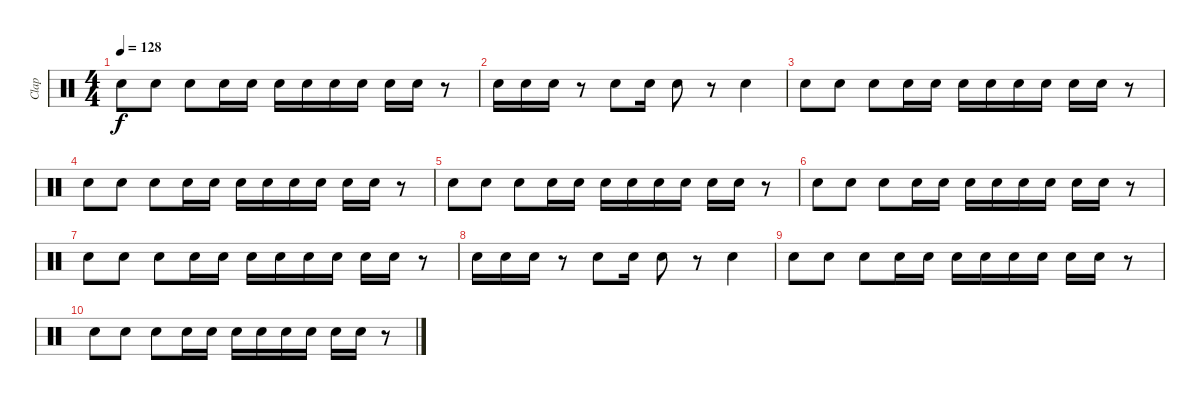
\track ("Clap" "Clap") {instrument percussion}
\staff {score}
\articulation defaults
\ts (4 4)
\tempo 128
\clef neutral
\ks c "Hand Clap (hit)".8{dy f} "Hand Clap (hit)".8 "Hand Clap (hit)".8 "Hand Clap (hit)".16 "Hand Clap (hit)".16 "Hand Clap (hit)".16 "Hand Clap (hit)".16 "Hand Clap (hit)".16 "Hand Clap (hit)".16 "Hand Clap (hit)".16 "Hand Clap (hit)".16
r.8 |
"Hand Clap (hit)".16 "Hand Clap (hit)".16 "Hand Clap (hit)".16 r.8 "Hand Clap (hit)".8 "Hand Clap (hit)".16 "Hand Clap (hit)".8 r.8 "Hand Clap (hit)".4 |
"Hand Clap (hit)".8 "Hand Clap (hit)".8 "Hand Clap (hit)".8 "Hand Clap (hit)".16 "Hand Clap (hit)".16 "Hand Clap (hit)".16 "Hand Clap (hit)".16 "Hand Clap (hit)".16 "Hand Clap (hit)".16 "Hand Clap (hit)".16 "Hand Clap (hit)".16 r.8 |
"Hand Clap (hit)".8 "Hand Clap (hit)".8 "Hand Clap (hit)".8 "Hand Clap (hit)".16 "Hand Clap (hit)".16 "Hand Clap (hit)".16 "Hand Clap (hit)".16 "Hand Clap (hit)".16 "Hand Clap (hit)".16 "Hand Clap (hit)".16 "Hand Clap (hit)".16 r.8 |
"Hand Clap (hit)".8 "Hand Clap (hit)".8 "Hand Clap (hit)".8 "Hand Clap (hit)".16 "Hand Clap (hit)".16 "Hand Clap (hit)".16 "Hand Clap (hit)".16 "Hand Clap (hit)".16 "Hand Clap (hit)".16 "Hand Clap (hit)".16 "Hand Clap (hit)".16 r.8 |
"Hand Clap (hit)".8 "Hand Clap (hit)".8 "Hand Clap (hit)".8 "Hand Clap (hit)".16 "Hand Clap (hit)".16 "Hand Clap (hit)".16 "Hand Clap (hit)".16 "Hand Clap (hit)".16 "Hand Clap (hit)".16 "Hand Clap (hit)".16 "Hand Clap (hit)".16 r.8 |
"Hand Clap (hit)".8 "Hand Clap (hit)".8 "Hand Clap (hit)".8 "Hand Clap (hit)".16 "Hand Clap (hit)".16 "Hand Clap (hit)".16 "Hand Clap (hit)".16 "Hand Clap (hit)".16 "Hand Clap (hit)".16 "Hand Clap (hit)".16 "Hand Clap (hit)".16 r.8 |
"Hand Clap (hit)".16 "Hand Clap (hit)".16 "Hand Clap (hit)".16 r.8 "Hand Clap (hit)".8 "Hand Clap (hit)".16 "Hand Clap (hit)".8 r.8 "Hand Clap (hit)".4 |
"Hand Clap (hit)".8 "Hand Clap (hit)".8 "Hand Clap (hit)".8 "Hand Clap (hit)".16 "Hand Clap (hit)".16 "Hand Clap (hit)".16 "Hand Clap (hit)".16 "Hand Clap (hit)".16 "Hand Clap (hit)".16 "Hand Clap (hit)".16 "Hand Clap (hit)".16 r.8 |
"Hand Clap (hit)".8 "Hand Clap (hit)".8 "Hand Clap (hit)".8 "Hand Clap (hit)".16 "Hand Clap (hit)".16 "Hand Clap (hit)".16 "Hand Clap (hit)".16 "Hand Clap (hit)".16 "Hand Clap (hit)".16 "Hand Clap (hit)".16 "Hand Clap (hit)".16 r.8
